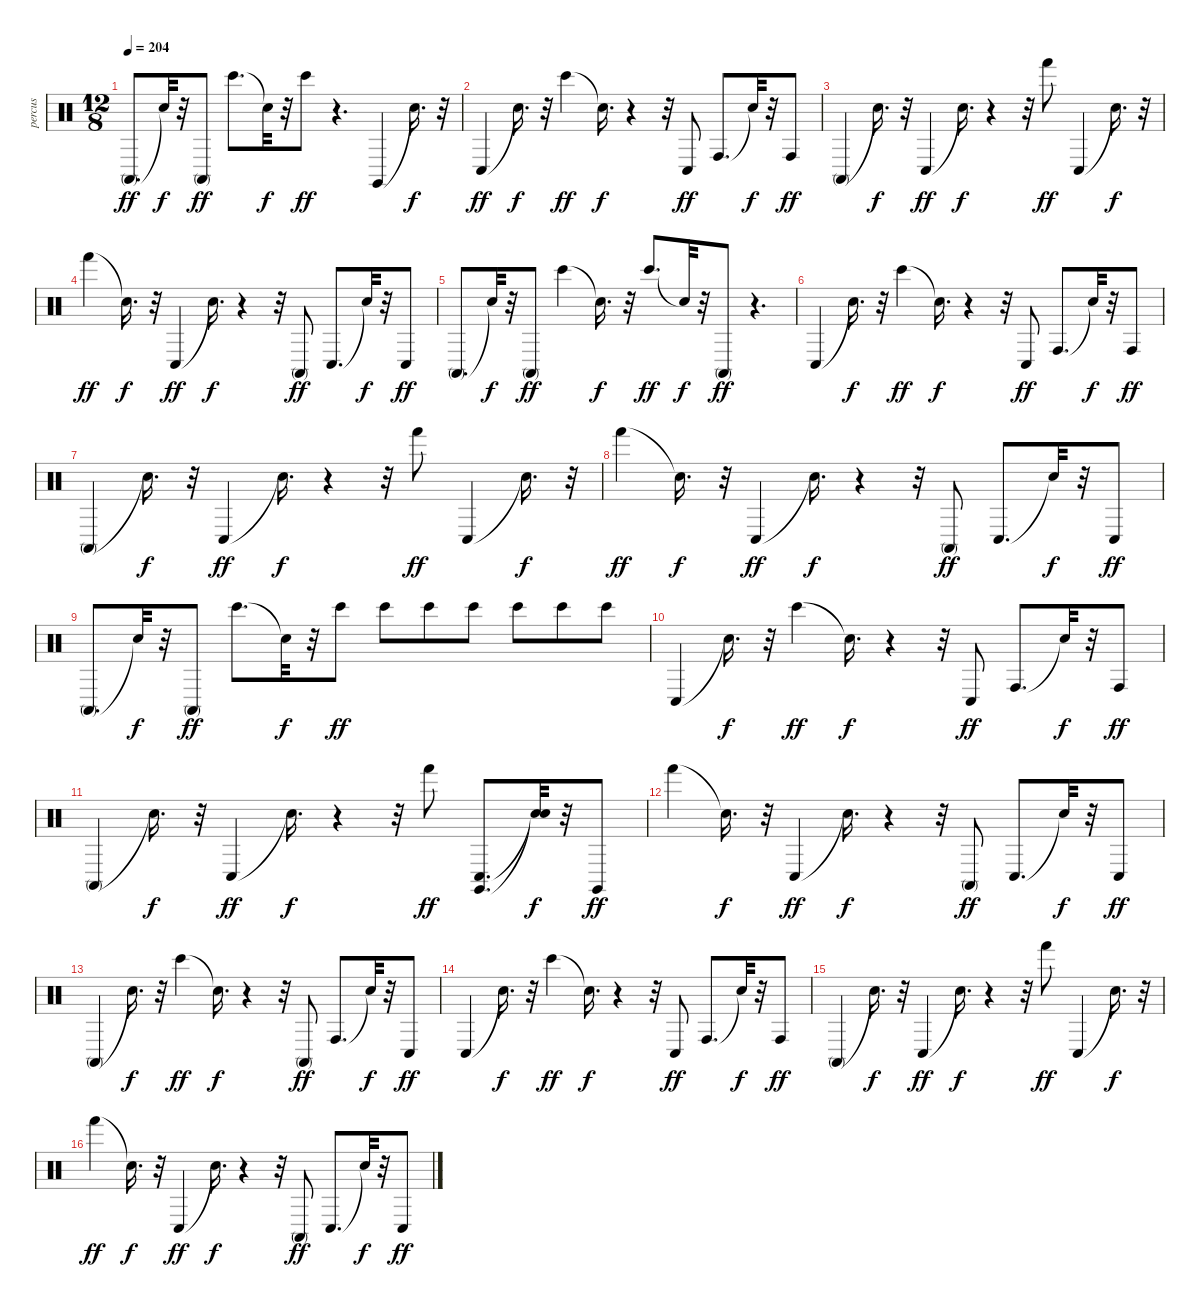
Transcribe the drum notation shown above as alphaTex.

\track ("percus" "percus") {instrument percussion}
\staff {score}
\articulation defaults
\ts (12 8)
\tempo 204
\clef neutral
\ks c "Conga high (mute)".8{d dy ff} "Snare (hit)"{t}.32{dy f}
r.32 "Conga high (mute)".8{dy ff} "Bongo High (hit)".8{d} "Snare (hit)"{t}.32{dy f} r.32 "Bongo High (hit)".8{dy ff} r.4{d} "Claves (hit)".4 "Snare (hit)"{t}.16{d dy f} r.32 |
"Conga low (hit)".4{dy ff} "Snare (hit)"{t}.16{d dy f} r.32 "Bongo High (hit)".4{dy ff} "Snare (hit)"{t}.16{d dy f} r.4 r.32 "Conga low (hit)".8{dy ff} "Conga high (hit)".8{d} "Snare (hit)"{t}.32{dy f} r.32 "Conga high (hit)".8{dy ff} |
"Conga high (mute)".4 "Snare (hit)"{t}.16{d dy f} r.32 "Conga low (hit)".4{dy ff} "Snare (hit)"{t}.16{d dy f} r.4 r.32 "Hand (hit)".8{dy ff} "Conga low (hit)".4 "Snare (hit)"{t}.16{d dy f} r.32 |
"Hand (hit)".4{dy ff} "Snare (hit)"{t}.16{d dy f} r.32 "Conga low (hit)".4{dy ff} "Snare (hit)"{t}.16{d dy f} r.4 r.32 "Conga high (mute)".8{dy ff} "Conga low (hit)".8{d} "Snare (hit)"{t}.32{dy f} r.32 "Conga low (hit)".8{dy ff} |
"Conga high (mute)".8{d} "Snare (hit)"{t}.32{dy f} r.32 "Conga high (mute)".8{dy ff} "Bongo High (hit)".4 "Snare (hit)"{t}.16{d dy f} r.32 "Bongo High (hit)".8{d dy ff} "Snare (hit)"{t}.32{dy f} r.32 "Conga high (mute)".8{dy ff} r.4{d} |
"Conga low (hit)".4 "Snare (hit)"{t}.16{d dy f} r.32 "Bongo High (hit)".4{dy ff} "Snare (hit)"{t}.16{d dy f} r.4 r.32 "Conga low (hit)".8{dy ff} "Conga high (hit)".8{d} "Snare (hit)"{t}.32{dy f} r.32 "Conga high (hit)".8{dy ff} |
"Conga high (mute)".4 "Snare (hit)"{t}.16{d dy f} r.32 "Conga low (hit)".4{dy ff} "Snare (hit)"{t}.16{d dy f} r.4 r.32 "Hand (hit)".8{dy ff} "Conga low (hit)".4 "Snare (hit)"{t}.16{d dy f} r.32 |
"Hand (hit)".4{dy ff} "Snare (hit)"{t}.16{d dy f} r.32 "Conga low (hit)".4{dy ff} "Snare (hit)"{t}.16{d dy f} r.4 r.32 "Conga high (mute)".8{dy ff} "Conga low (hit)".8{d} "Snare (hit)"{t}.32{dy f} r.32 "Conga low (hit)".8{dy ff} |
"Conga high (mute)".8{d} "Snare (hit)"{t}.32{dy f} r.32 "Conga high (mute)".8{dy ff} "Bongo High (hit)".8{d} "Snare (hit)"{t}.32{dy f} r.32 "Bongo High (hit)".8{dy ff} "Bongo High (hit)".8 "Bongo High (hit)".8 "Bongo High (hit)".8 "Bongo High (hit)".8 "Bongo High (hit)".8 "Bongo High (hit)".8 |
"Conga low (hit)".4 "Snare (hit)"{t}.16{d dy f} r.32 "Bongo High (hit)".4{dy ff} "Snare (hit)"{t}.16{d dy f} r.4 r.32 "Conga low (hit)".8{dy ff} "Conga high (hit)".8{d} "Snare (hit)"{t}.32{dy f} r.32 "Conga high (hit)".8{dy ff} |
"Conga high (mute)".4 "Snare (hit)"{t}.16{d dy f} r.32 "Conga low (hit)".4{dy ff} "Snare (hit)"{t}.16{d dy f} r.4 r.32 "Hand (hit)".8{dy ff} ("Conga low (hit)" "Claves (hit)").8{d} ("Snare (hit)"{t} "Snare (hit)"{t}).32{dy f} r.32 "Claves (hit)".8{dy ff} |
"Hand (hit)".4 "Snare (hit)"{t}.16{d dy f} r.32 "Conga low (hit)".4{dy ff} "Snare (hit)"{t}.16{d dy f} r.4 r.32 "Conga high (mute)".8{dy ff} "Conga low (hit)".8{d} "Snare (hit)"{t}.32{dy f} r.32 "Conga low (hit)".8{dy ff} |
"Conga high (mute)".4 "Snare (hit)"{t}.16{d dy f} r.32 "Bongo High (hit)".4{dy ff} "Snare (hit)"{t}.16{d dy f} r.4 r.32 "Conga high (mute)".8{dy ff} "Conga high (hit)".8{d} "Snare (hit)"{t}.32{dy f} r.32 "Conga low (hit)".8{dy ff} |
"Conga low (hit)".4 "Snare (hit)"{t}.16{d dy f} r.32 "Bongo High (hit)".4{dy ff} "Snare (hit)"{t}.16{d dy f} r.4 r.32 "Conga low (hit)".8{dy ff} "Conga high (hit)".8{d} "Snare (hit)"{t}.32{dy f} r.32 "Conga high (hit)".8{dy ff} |
"Conga high (mute)".4 "Snare (hit)"{t}.16{d dy f} r.32 "Conga low (hit)".4{dy ff} "Snare (hit)"{t}.16{d dy f} r.4 r.32 "Hand (hit)".8{dy ff} "Conga low (hit)".4 "Snare (hit)"{t}.16{d dy f} r.32 |
"Hand (hit)".4{dy ff} "Snare (hit)"{t}.16{d dy f} r.32 "Conga low (hit)".4{dy ff} "Snare (hit)"{t}.16{d dy f} r.4 r.32 "Conga high (mute)".8{dy ff} "Conga low (hit)".8{d} "Snare (hit)"{t}.32{dy f} r.32 "Conga low (hit)".8{dy ff}
